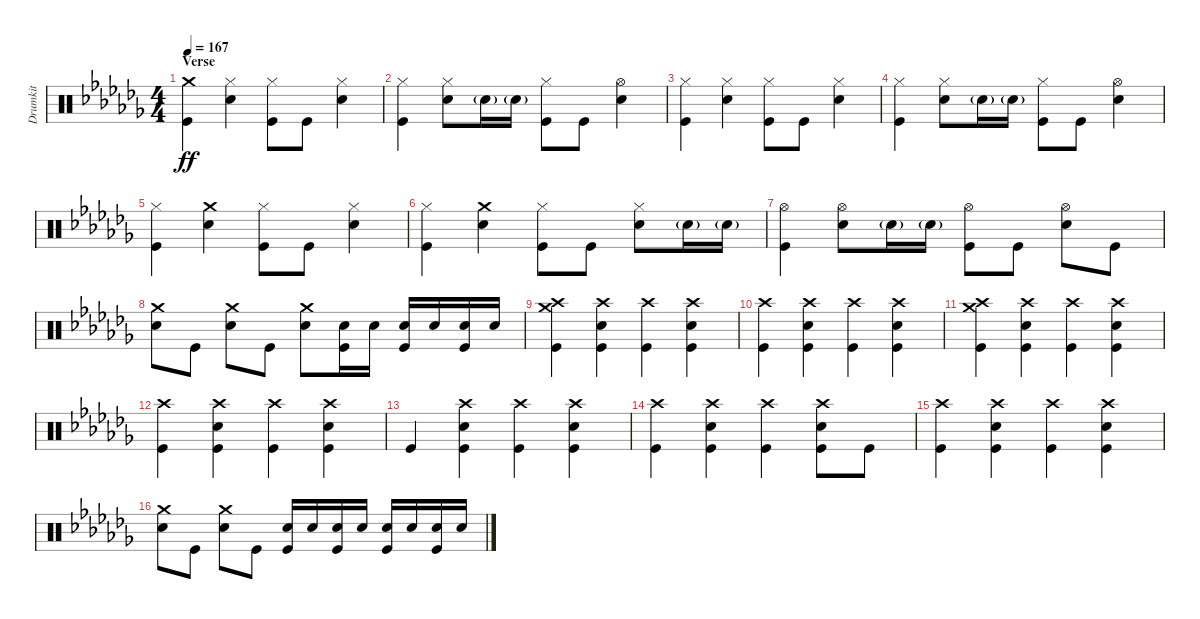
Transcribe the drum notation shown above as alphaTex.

\track ("Drumkit" "Drumkit") {instrument percussion}
\staff {score}
\articulation defaults
\ts (4 4)
\section ("" "Verse")
\tempo 167
\clef neutral
\ks abminor
("Crash medium (hit)" "Kick (hit)").4{dy ff} ("Snare (hit) 2" "Hi-Hat (closed)").4 ("Kick (hit)" "Hi-Hat (closed)").8 "Kick (hit)".8 ("Snare (hit) 2" "Hi-Hat (closed)").4 |
("Kick (hit)" "Hi-Hat (closed)").4 ("Snare (hit) 2" "Hi-Hat (closed)").8 "Snare (hit) 2"{g}.16 "Snare (hit) 2"{g}.16 ("Kick (hit)" "Hi-Hat (closed)").8 "Kick (hit)".8 ("Snare (hit) 2" "Hi-Hat (open)").4 |
("Kick (hit)" "Hi-Hat (closed)").4 ("Snare (hit) 2" "Hi-Hat (closed)").4 ("Kick (hit)" "Hi-Hat (closed)").8 "Kick (hit)".8 ("Snare (hit) 2" "Hi-Hat (closed)").4 |
("Kick (hit)" "Hi-Hat (closed)").4 ("Snare (hit) 2" "Hi-Hat (closed)").8 "Snare (hit) 2"{g}.16 "Snare (hit) 2"{g}.16 ("Kick (hit)" "Hi-Hat (closed)").8 "Kick (hit)".8 ("Snare (hit) 2" "Hi-Hat (open)").4 |
("Kick (hit)" "Hi-Hat (closed)").4 ("Snare (hit) 2" "Crash medium (hit)").4 ("Kick (hit)" "Hi-Hat (closed)").8 "Kick (hit)".8 ("Snare (hit) 2" "Hi-Hat (closed)").4 |
("Kick (hit)" "Hi-Hat (closed)").4 ("Snare (hit) 2" "Crash medium (hit)").4 ("Kick (hit)" "Hi-Hat (closed)").8 "Kick (hit)".8 ("Snare (hit) 2" "Hi-Hat (closed)").8 "Snare (hit) 2"{g}.16 "Snare (hit) 2"{g}.16 |
("Kick (hit)" "Hi-Hat (open)").4 ("Snare (hit) 2" "Hi-Hat (open)").8 "Snare (hit) 2"{g}.16 "Snare (hit) 2"{g}.16 ("Kick (hit)" "Hi-Hat (open)").8 "Kick (hit)".8 ("Snare (hit) 2" "Hi-Hat (open)").8 "Kick (hit)".8 |
("Snare (hit) 2" "Crash medium (hit)").8 "Kick (hit)".8 ("Snare (hit) 2" "Crash medium (hit)").8 "Kick (hit)".8 ("Snare (hit) 2" "Crash medium (hit)").8 ("Snare (hit) 2" "Kick (hit)").16 "Snare (hit) 2".16 ("Snare (hit) 2" "Kick (hit)").16 "Snare (hit) 2".16 ("Snare (hit) 2" "Kick (hit)").16 "Snare (hit) 2".16 |
("Crash high (hit)" "Crash medium (hit)" "Kick (hit)").4 ("Snare (hit) 2" "Kick (hit)" "Crash high (hit)").4 ("Kick (hit)" "Crash high (hit)").4 ("Snare (hit) 2" "Kick (hit)" "Crash high (hit)").4 |
("Kick (hit)" "Crash high (hit)").4 ("Snare (hit) 2" "Kick (hit)" "Crash high (hit)").4 ("Kick (hit)" "Crash high (hit)").4 ("Snare (hit) 2" "Kick (hit)" "Crash high (hit)").4 |
("Kick (hit)" "Crash high (hit)" "Crash medium (hit)").4 ("Snare (hit) 2" "Kick (hit)" "Crash high (hit)").4 ("Kick (hit)" "Crash high (hit)").4 ("Snare (hit) 2" "Kick (hit)" "Crash high (hit)").4 |
("Kick (hit)" "Crash high (hit)").4 ("Snare (hit) 2" "Kick (hit)" "Crash high (hit)").4 ("Kick (hit)" "Crash high (hit)").4 ("Snare (hit) 2" "Kick (hit)" "Crash high (hit)").4 |
"Kick (hit)".4 ("Snare (hit) 2" "Kick (hit)" "Crash high (hit)").4 ("Kick (hit)" "Crash high (hit)").4 ("Snare (hit) 2" "Kick (hit)" "Crash high (hit)").4 |
("Kick (hit)" "Crash high (hit)").4 ("Snare (hit) 2" "Kick (hit)" "Crash high (hit)").4 ("Kick (hit)" "Crash high (hit)").4 ("Snare (hit) 2" "Kick (hit)" "Crash high (hit)").8 "Kick (hit)".8 |
("Kick (hit)" "Crash high (hit)").4 ("Snare (hit) 2" "Kick (hit)" "Crash high (hit)").4 ("Kick (hit)" "Crash high (hit)").4 ("Snare (hit) 2" "Kick (hit)" "Crash high (hit)").4 |
("Crash medium (hit)" "Snare (hit) 2").8 "Kick (hit)".8 ("Crash medium (hit)" "Snare (hit) 2").8 "Kick (hit)".8 ("Kick (hit)" "Snare (hit) 2").16 "Snare (hit) 2".16 ("Kick (hit)" "Snare (hit) 2").16 "Snare (hit) 2".16 ("Kick (hit)" "Snare (hit) 2").16 "Snare (hit) 2".16 ("Kick (hit)" "Snare (hit) 2").16 "Snare (hit) 2".16
